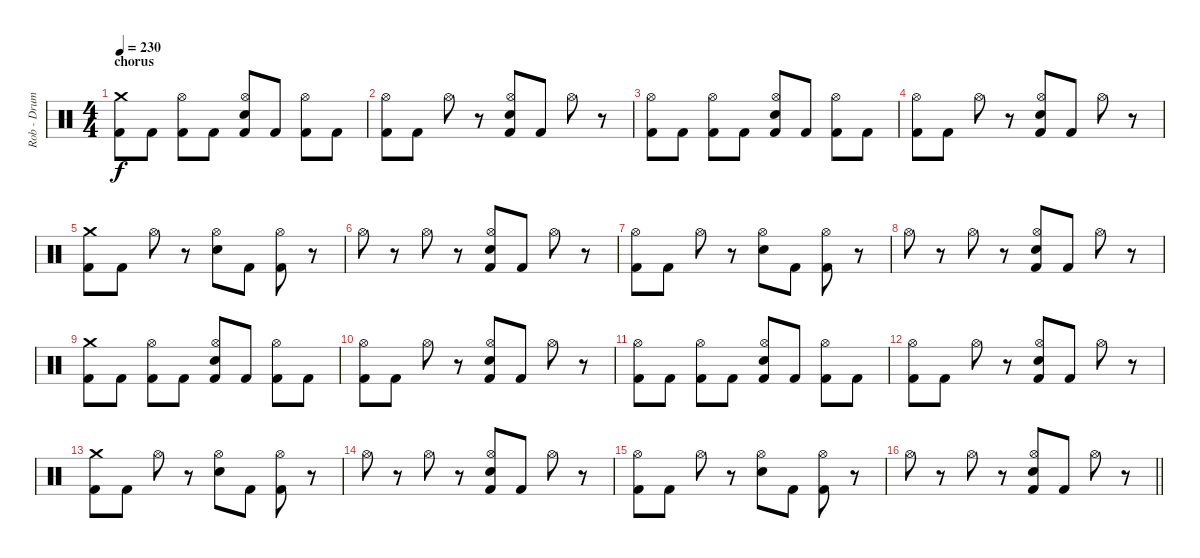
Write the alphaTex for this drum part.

\track ("Rob - Drums" "Rob - Drum") {instrument percussion}
\staff {score}
\articulation defaults
\ts (4 4)
\section ("" "chorus")
\tempo 230
\clef neutral
\ks c
("Crash medium (hit)" "Kick (hit) 2").8{dy f} "Kick (hit) 2".8 ("Hi-Hat (open)" "Kick (hit) 2").8 "Kick (hit) 2".8 ("Hi-Hat (open)" "Electric Snare (hit)" "Kick (hit) 2").8 "Kick (hit) 2".8 ("Hi-Hat (open)" "Kick (hit) 2").8 "Kick (hit) 2".8 |
("Hi-Hat (open)" "Kick (hit) 2").8 "Kick (hit) 2".8 "Hi-Hat (open)".8 r.8 ("Hi-Hat (open)" "Electric Snare (hit)" "Kick (hit) 2").8 "Kick (hit) 2".8 "Hi-Hat (open)".8 r.8 |
("Hi-Hat (open)" "Kick (hit) 2").8 "Kick (hit) 2".8 ("Hi-Hat (open)" "Kick (hit) 2").8 "Kick (hit) 2".8 ("Hi-Hat (open)" "Electric Snare (hit)" "Kick (hit) 2").8 "Kick (hit) 2".8 ("Hi-Hat (open)" "Kick (hit) 2").8 "Kick (hit) 2".8 |
("Hi-Hat (open)" "Kick (hit) 2").8 "Kick (hit) 2".8 "Hi-Hat (open)".8 r.8 ("Hi-Hat (open)" "Electric Snare (hit)" "Kick (hit) 2").8 "Kick (hit) 2".8 "Hi-Hat (open)".8 r.8 |
("Crash medium (hit)" "Kick (hit) 2").8 "Kick (hit) 2".8 "Hi-Hat (open)".8 r.8 ("Hi-Hat (open)" "Electric Snare (hit)").8 "Kick (hit) 2".8 ("Hi-Hat (open)" "Kick (hit) 2").8 r.8 |
"Hi-Hat (open)".8 r.8 "Hi-Hat (open)".8 r.8 ("Hi-Hat (open)" "Electric Snare (hit)" "Kick (hit) 2").8 "Kick (hit) 2".8 "Hi-Hat (open)".8 r.8 |
("Hi-Hat (open)" "Kick (hit) 2").8 "Kick (hit) 2".8 "Hi-Hat (open)".8 r.8 ("Hi-Hat (open)" "Electric Snare (hit)").8 "Kick (hit) 2".8 ("Hi-Hat (open)" "Kick (hit) 2").8 r.8 |
"Hi-Hat (open)".8 r.8 "Hi-Hat (open)".8 r.8 ("Hi-Hat (open)" "Electric Snare (hit)" "Kick (hit) 2").8 "Kick (hit) 2".8 "Hi-Hat (open)".8 r.8 |
("Crash medium (hit)" "Kick (hit) 2").8 "Kick (hit) 2".8 ("Hi-Hat (open)" "Kick (hit) 2").8 "Kick (hit) 2".8 ("Hi-Hat (open)" "Electric Snare (hit)" "Kick (hit) 2").8 "Kick (hit) 2".8 ("Hi-Hat (open)" "Kick (hit) 2").8 "Kick (hit) 2".8 |
("Hi-Hat (open)" "Kick (hit) 2").8 "Kick (hit) 2".8 "Hi-Hat (open)".8 r.8 ("Hi-Hat (open)" "Electric Snare (hit)" "Kick (hit) 2").8 "Kick (hit) 2".8 "Hi-Hat (open)".8 r.8 |
("Hi-Hat (open)" "Kick (hit) 2").8 "Kick (hit) 2".8 ("Hi-Hat (open)" "Kick (hit) 2").8 "Kick (hit) 2".8 ("Hi-Hat (open)" "Electric Snare (hit)" "Kick (hit) 2").8 "Kick (hit) 2".8 ("Hi-Hat (open)" "Kick (hit) 2").8 "Kick (hit) 2".8 |
("Hi-Hat (open)" "Kick (hit) 2").8 "Kick (hit) 2".8 "Hi-Hat (open)".8 r.8 ("Hi-Hat (open)" "Electric Snare (hit)" "Kick (hit) 2").8 "Kick (hit) 2".8 "Hi-Hat (open)".8 r.8 |
("Crash medium (hit)" "Kick (hit) 2").8 "Kick (hit) 2".8 "Hi-Hat (open)".8 r.8 ("Hi-Hat (open)" "Electric Snare (hit)").8 "Kick (hit) 2".8 ("Hi-Hat (open)" "Kick (hit) 2").8 r.8 |
"Hi-Hat (open)".8 r.8 "Hi-Hat (open)".8 r.8 ("Hi-Hat (open)" "Electric Snare (hit)" "Kick (hit) 2").8 "Kick (hit) 2".8 "Hi-Hat (open)".8 r.8 |
("Hi-Hat (open)" "Kick (hit) 2").8 "Kick (hit) 2".8 "Hi-Hat (open)".8 r.8 ("Hi-Hat (open)" "Electric Snare (hit)").8 "Kick (hit) 2".8 ("Hi-Hat (open)" "Kick (hit) 2").8 r.8 |
\barLineRight lightlight "Hi-Hat (open)".8
r.8 "Hi-Hat (open)".8 r.8 ("Hi-Hat (open)" "Electric Snare (hit)" "Kick (hit) 2").8 "Kick (hit) 2".8 "Hi-Hat (open)".8 r.8
